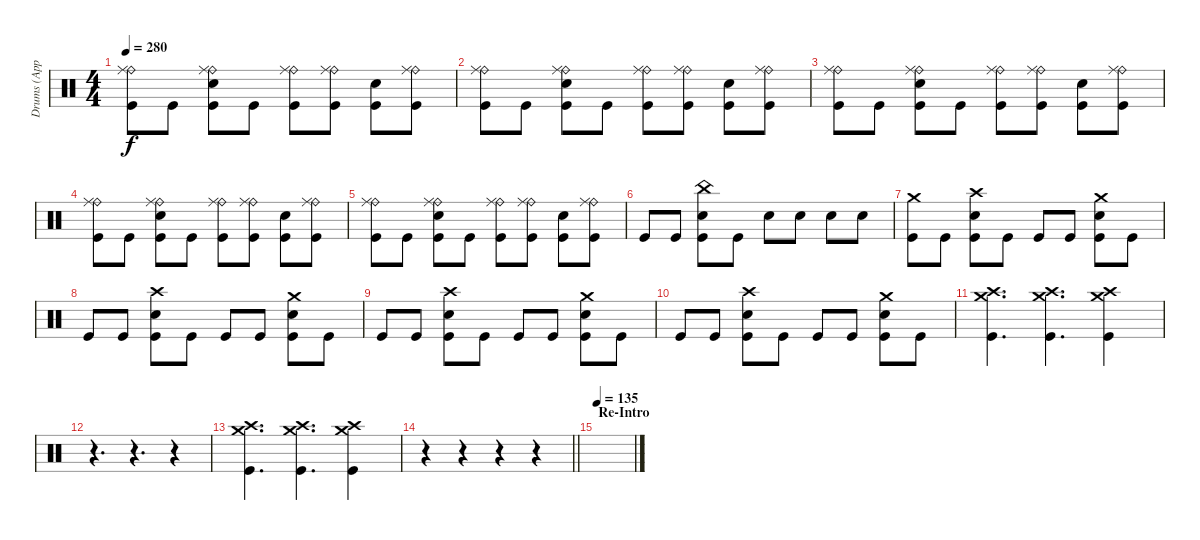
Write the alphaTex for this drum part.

\track ("Drums (Approx.)" "Drums (App") {instrument percussion}
\staff {score}
\articulation defaults
\ts (4 4)
\tempo 280
\clef neutral
\ks c
("Ride (bell)" "Ride (middle)" "Kick (hit)").8{dy f} "Kick (hit)".8 ("Ride (bell)" "Ride (middle)" "Electric Snare (hit)" "Kick (hit)").8 "Kick (hit)".8 ("Ride (bell)" "Ride (middle)" "Kick (hit)").8 ("Ride (bell)" "Ride (middle)" "Kick (hit)").8 ("Electric Snare (hit)" "Kick (hit)").8 ("Ride (bell)" "Ride (middle)" "Kick (hit)").8 |
("Ride (bell)" "Ride (middle)" "Kick (hit)").8 "Kick (hit)".8 ("Ride (bell)" "Ride (middle)" "Electric Snare (hit)" "Kick (hit)").8 "Kick (hit)".8 ("Ride (bell)" "Ride (middle)" "Kick (hit)").8 ("Ride (bell)" "Ride (middle)" "Kick (hit)").8 ("Electric Snare (hit)" "Kick (hit)").8 ("Ride (bell)" "Ride (middle)" "Kick (hit)").8 |
("Ride (bell)" "Ride (middle)" "Kick (hit)").8 "Kick (hit)".8 ("Ride (bell)" "Ride (middle)" "Electric Snare (hit)" "Kick (hit)").8 "Kick (hit)".8 ("Ride (bell)" "Ride (middle)" "Kick (hit)").8 ("Ride (bell)" "Ride (middle)" "Kick (hit)").8 ("Electric Snare (hit)" "Kick (hit)").8 ("Ride (bell)" "Ride (middle)" "Kick (hit)").8 |
("Ride (bell)" "Ride (middle)" "Kick (hit)").8 "Kick (hit)".8 ("Ride (bell)" "Ride (middle)" "Electric Snare (hit)" "Kick (hit)").8 "Kick (hit)".8 ("Ride (bell)" "Ride (middle)" "Kick (hit)").8 ("Ride (bell)" "Ride (middle)" "Kick (hit)").8 ("Electric Snare (hit)" "Kick (hit)").8 ("Ride (bell)" "Ride (middle)" "Kick (hit)").8 |
("Ride (bell)" "Ride (middle)" "Kick (hit)").8 "Kick (hit)".8 ("Ride (bell)" "Ride (middle)" "Electric Snare (hit)" "Kick (hit)").8 "Kick (hit)".8 ("Ride (bell)" "Ride (middle)" "Kick (hit)").8 ("Ride (bell)" "Ride (middle)" "Kick (hit)").8 ("Electric Snare (hit)" "Kick (hit)").8 ("Ride (bell)" "Ride (middle)" "Kick (hit)").8 |
"Kick (hit)".8 "Kick (hit)".8 ("China (hit)" "Electric Snare (hit)" "Kick (hit)").8 "Kick (hit)".8 "Electric Snare (hit)".8 "Electric Snare (hit)".8 "Electric Snare (hit)".8 "Electric Snare (hit)".8 |
("Crash medium (hit)" "Kick (hit)").8 "Kick (hit)".8 ("Crash high (hit)" "Electric Snare (hit)" "Kick (hit)").8 "Kick (hit)".8 "Kick (hit)".8 "Kick (hit)".8 ("Crash medium (hit)" "Electric Snare (hit)" "Kick (hit)").8 "Kick (hit)".8 |
"Kick (hit)".8 "Kick (hit)".8 ("Crash high (hit)" "Electric Snare (hit)" "Kick (hit)").8 "Kick (hit)".8 "Kick (hit)".8 "Kick (hit)".8 ("Crash medium (hit)" "Electric Snare (hit)" "Kick (hit)").8 "Kick (hit)".8 |
"Kick (hit)".8 "Kick (hit)".8 ("Crash high (hit)" "Electric Snare (hit)" "Kick (hit)").8 "Kick (hit)".8 "Kick (hit)".8 "Kick (hit)".8 ("Crash medium (hit)" "Electric Snare (hit)" "Kick (hit)").8 "Kick (hit)".8 |
"Kick (hit)".8 "Kick (hit)".8 ("Crash high (hit)" "Electric Snare (hit)" "Kick (hit)").8 "Kick (hit)".8 "Kick (hit)".8 "Kick (hit)".8 ("Crash medium (hit)" "Electric Snare (hit)" "Kick (hit)").8 "Kick (hit)".8 |
("Crash medium (hit)" "Crash high (hit)" "Kick (hit)").4{d} ("Crash medium (hit)" "Crash high (hit)" "Kick (hit)").4{d} ("Crash medium (hit)" "Crash high (hit)" "Kick (hit)").4 |
r.4{d} r.4{d} r.4 |
("Crash medium (hit)" "Crash high (hit)" "Kick (hit)").4{d} ("Crash medium (hit)" "Crash high (hit)" "Kick (hit)").4{d} ("Crash medium (hit)" "Crash high (hit)" "Kick (hit)").4 |
\barLineRight lightlight
r.4 r.4 r.4 r.4 |
\section ("" "Re-Intro")
\tempo 135
